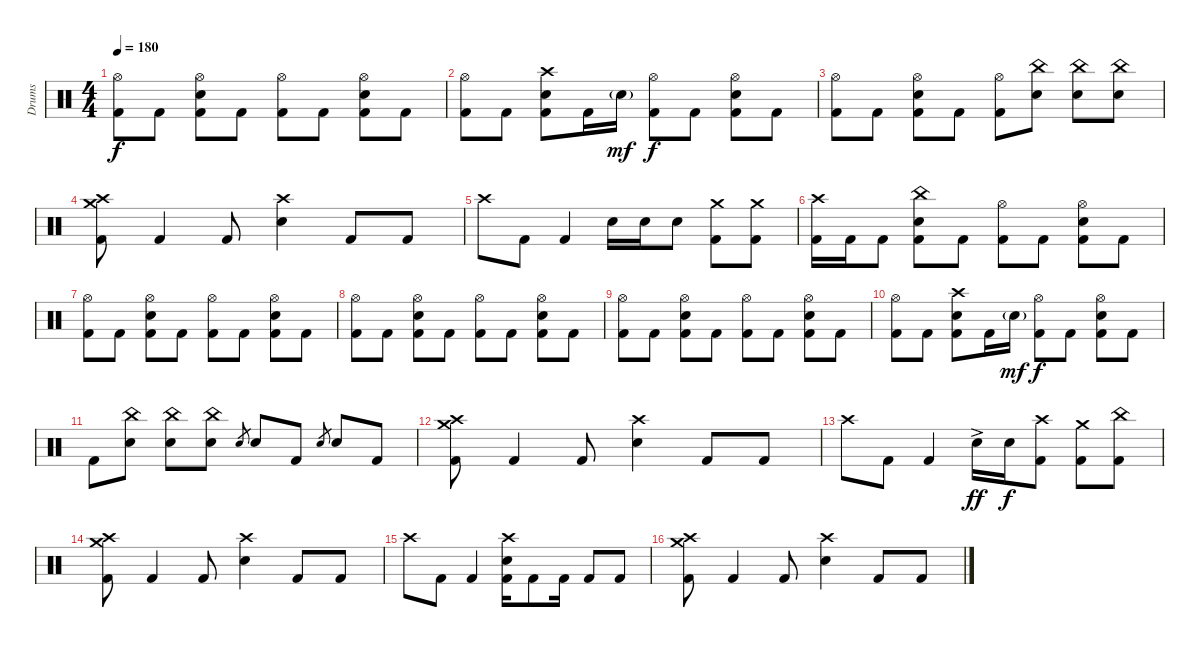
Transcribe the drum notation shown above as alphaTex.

\track ("Drums" "Drums") {instrument percussion}
\staff {score}
\articulation defaults
\ts (4 4)
\tempo 180
\clef neutral
\ks c
("Hi-Hat (open)" "Kick (hit) 2").8{dy f} "Kick (hit) 2".8 ("Hi-Hat (open)" "Electric Snare (hit)" "Kick (hit) 2").8 "Kick (hit) 2".8 ("Hi-Hat (open)" "Kick (hit) 2").8 "Kick (hit) 2".8 ("Hi-Hat (open)" "Electric Snare (hit)" "Kick (hit) 2").8 "Kick (hit) 2".8 |
("Hi-Hat (open)" "Kick (hit) 2").8 "Kick (hit) 2".8 ("Crash high (hit)" "Electric Snare (hit)" "Kick (hit) 2").8 "Kick (hit) 2".16 "Electric Snare (hit)"{g}.16{dy mf} ("Hi-Hat (open)" "Kick (hit) 2").8{dy f} "Kick (hit) 2".8 ("Hi-Hat (open)" "Electric Snare (hit)" "Kick (hit) 2").8 "Kick (hit) 2".8 |
("Hi-Hat (open)" "Kick (hit) 2").8 "Kick (hit) 2".8 ("Hi-Hat (open)" "Electric Snare (hit)" "Kick (hit) 2").8 "Kick (hit) 2".8 ("Hi-Hat (open)" "Kick (hit) 2").8 ("China (hit)" "Electric Snare (hit)").8 ("China (hit)" "Electric Snare (hit)").8 ("China (hit)" "Electric Snare (hit)").8 |
("Crash medium (hit)" "Crash high (hit)" "Kick (hit) 2").8 "Kick (hit) 2".4 "Kick (hit) 2".8 ("Crash high (hit)" "Electric Snare (hit)").4 "Kick (hit) 2".8 "Kick (hit) 2".8 |
"Crash high (hit)".8 "Kick (hit) 2".8 "Kick (hit) 2".4 "Electric Snare (hit)".16 "Electric Snare (hit)".16 "Electric Snare (hit)".8 ("Crash medium (hit)" "Kick (hit) 2").8 ("Crash medium (hit)" "Kick (hit) 2").8 |
("Crash high (hit)" "Kick (hit) 2").16 "Kick (hit) 2".16 "Kick (hit) 2".8 ("China (hit)" "Electric Snare (hit)" "Kick (hit) 2").8 "Kick (hit) 2".8 ("Hi-Hat (open)" "Kick (hit) 2").8 "Kick (hit) 2".8 ("Hi-Hat (open)" "Electric Snare (hit)" "Kick (hit) 2").8 "Kick (hit) 2".8 |
("Hi-Hat (open)" "Kick (hit) 2").8 "Kick (hit) 2".8 ("Hi-Hat (open)" "Electric Snare (hit)" "Kick (hit) 2").8 "Kick (hit) 2".8 ("Hi-Hat (open)" "Kick (hit) 2").8 "Kick (hit) 2".8 ("Hi-Hat (open)" "Electric Snare (hit)" "Kick (hit) 2").8 "Kick (hit) 2".8 |
("Hi-Hat (open)" "Kick (hit) 2").8 "Kick (hit) 2".8 ("Hi-Hat (open)" "Electric Snare (hit)" "Kick (hit) 2").8 "Kick (hit) 2".8 ("Hi-Hat (open)" "Kick (hit) 2").8 "Kick (hit) 2".8 ("Hi-Hat (open)" "Electric Snare (hit)" "Kick (hit) 2").8 "Kick (hit) 2".8 |
("Hi-Hat (open)" "Kick (hit) 2").8 "Kick (hit) 2".8 ("Hi-Hat (open)" "Electric Snare (hit)" "Kick (hit) 2").8 "Kick (hit) 2".8 ("Hi-Hat (open)" "Kick (hit) 2").8 "Kick (hit) 2".8 ("Hi-Hat (open)" "Electric Snare (hit)" "Kick (hit) 2").8 "Kick (hit) 2".8 |
("Hi-Hat (open)" "Kick (hit) 2").8 "Kick (hit) 2".8 ("Crash high (hit)" "Electric Snare (hit)" "Kick (hit) 2").8 "Kick (hit) 2".16 "Electric Snare (hit)"{g}.16{dy mf} ("Hi-Hat (open)" "Kick (hit) 2").8{dy f} "Kick (hit) 2".8 ("Hi-Hat (open)" "Electric Snare (hit)" "Kick (hit) 2").8 "Kick (hit) 2".8 |
"Kick (hit) 2".8 ("China (hit)" "Electric Snare (hit)").8 ("China (hit)" "Electric Snare (hit)").8 ("China (hit)" "Electric Snare (hit)").8 "Electric Snare (hit)".8{gr} "Electric Snare (hit)".8 "Kick (hit) 2".8 "Electric Snare (hit)".8{gr} "Electric Snare (hit)".8 "Kick (hit) 2".8 |
("Crash medium (hit)" "Crash high (hit)" "Kick (hit) 2").8 "Kick (hit) 2".4 "Kick (hit) 2".8 ("Crash high (hit)" "Electric Snare (hit)").4 "Kick (hit) 2".8 "Kick (hit) 2".8 |
"Crash high (hit)".8 "Kick (hit) 2".8 "Kick (hit) 2".4 "Electric Snare (hit)"{ac}.16{dy ff} "Electric Snare (hit)".16{dy f} ("Crash high (hit)" "Kick (hit) 2").8 ("Crash medium (hit)" "Kick (hit) 2").8 ("China (hit)" "Kick (hit) 2").8 |
("Crash medium (hit)" "Crash high (hit)" "Kick (hit) 2").8 "Kick (hit) 2".4 "Kick (hit) 2".8 ("Crash high (hit)" "Electric Snare (hit)").4 "Kick (hit) 2".8 "Kick (hit) 2".8 |
"Crash high (hit)".8 "Kick (hit) 2".8 "Kick (hit) 2".4 ("Crash high (hit)" "Electric Snare (hit)" "Kick (hit) 2").16 "Kick (hit) 2".8 "Kick (hit) 2".16 "Kick (hit) 2".8 "Kick (hit) 2".8 |
("Crash medium (hit)" "Crash high (hit)" "Kick (hit) 2").8 "Kick (hit) 2".4 "Kick (hit) 2".8 ("Crash high (hit)" "Electric Snare (hit)").4 "Kick (hit) 2".8 "Kick (hit) 2".8
